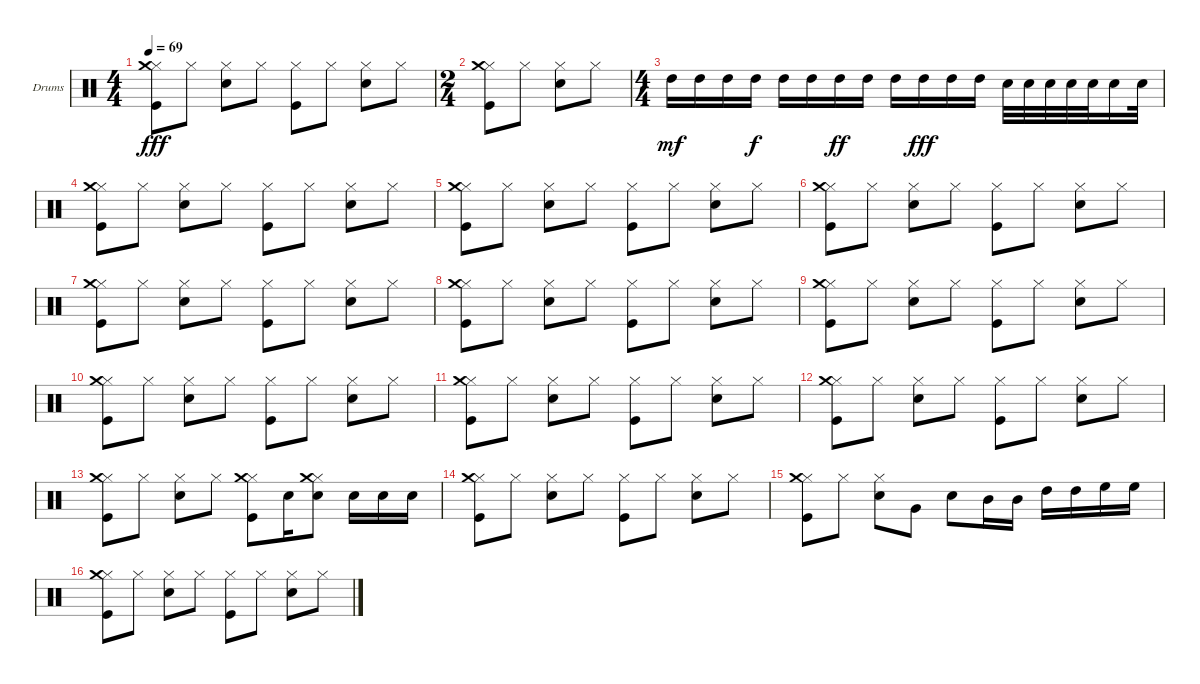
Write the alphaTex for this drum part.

\bracketExtendMode groupsimilarinstruments
\firstSystemTrackNameOrientation horizontal
\otherSystemsTrackNameOrientation horizontal
\track ("Барабаны" "Drums") {instrument percussion}
\staff {score}
\articulation defaults
\ts (4 4)
\tempo 69
\clef neutral
\ks c
("Hi-Hat (closed)" "Kick (hit)" "Crash medium (hit)").8{dy fff} "Hi-Hat (closed)".8 ("Hi-Hat (closed)" "Snare (hit) 2").8 "Hi-Hat (closed)".8 ("Hi-Hat (closed)" "Kick (hit)").8 "Hi-Hat (closed)".8 ("Hi-Hat (closed)" "Snare (hit) 2").8 "Hi-Hat (closed)".8 |
\ts (2 4)
("Hi-Hat (closed)" "Kick (hit)" "Crash medium (hit)").8 "Hi-Hat (closed)".8 ("Hi-Hat (closed)" "Snare (hit) 2").8 "Hi-Hat (closed)".8 |
\ts (4 4)
"High Tom (hit)".16{dy mf} "High Tom (hit)".16 "High Tom (hit)".16 "High Tom (hit)".16{dy f} "High Tom (hit)".16 "High Tom (hit)".16 "High Tom (hit)".16{dy ff} "High Tom (hit)".16 "High Tom (hit)".16 "High Tom (hit)".16{dy fff} "High Tom (hit)".16 "High Tom (hit)".16 "Snare (hit) 2".32 "Snare (hit) 2".32 "Snare (hit) 2".32 "Snare (hit) 2".32 "Snare (hit) 2".32 "Snare (hit) 2".16 "Snare (hit) 2".32 |
("Hi-Hat (closed)" "Kick (hit)" "Crash medium (hit)").8 "Hi-Hat (closed)".8 ("Hi-Hat (closed)" "Snare (hit) 2").8 "Hi-Hat (closed)".8 ("Hi-Hat (closed)" "Kick (hit)").8 "Hi-Hat (closed)".8 ("Hi-Hat (closed)" "Snare (hit) 2").8 "Hi-Hat (closed)".8 |
("Hi-Hat (closed)" "Kick (hit)" "Crash medium (hit)").8 "Hi-Hat (closed)".8 ("Hi-Hat (closed)" "Snare (hit) 2").8 "Hi-Hat (closed)".8 ("Hi-Hat (closed)" "Kick (hit)").8 "Hi-Hat (closed)".8 ("Hi-Hat (closed)" "Snare (hit) 2").8 "Hi-Hat (closed)".8 |
("Hi-Hat (closed)" "Kick (hit)" "Crash medium (hit)").8 "Hi-Hat (closed)".8 ("Hi-Hat (closed)" "Snare (hit) 2").8 "Hi-Hat (closed)".8 ("Hi-Hat (closed)" "Kick (hit)").8 "Hi-Hat (closed)".8 ("Hi-Hat (closed)" "Snare (hit) 2").8 "Hi-Hat (closed)".8 |
("Hi-Hat (closed)" "Kick (hit)" "Crash medium (hit)").8 "Hi-Hat (closed)".8 ("Hi-Hat (closed)" "Snare (hit) 2").8 "Hi-Hat (closed)".8 ("Hi-Hat (closed)" "Kick (hit)").8 "Hi-Hat (closed)".8 ("Hi-Hat (closed)" "Snare (hit) 2").8 "Hi-Hat (closed)".8 |
("Hi-Hat (closed)" "Kick (hit)" "Crash medium (hit)").8 "Hi-Hat (closed)".8 ("Hi-Hat (closed)" "Snare (hit) 2").8 "Hi-Hat (closed)".8 ("Hi-Hat (closed)" "Kick (hit)").8 "Hi-Hat (closed)".8 ("Hi-Hat (closed)" "Snare (hit) 2").8 "Hi-Hat (closed)".8 |
("Hi-Hat (closed)" "Kick (hit)" "Crash medium (hit)").8 "Hi-Hat (closed)".8 ("Hi-Hat (closed)" "Snare (hit) 2").8 "Hi-Hat (closed)".8 ("Hi-Hat (closed)" "Kick (hit)").8 "Hi-Hat (closed)".8 ("Hi-Hat (closed)" "Snare (hit) 2").8 "Hi-Hat (closed)".8 |
("Hi-Hat (closed)" "Kick (hit)" "Crash medium (hit)").8 "Hi-Hat (closed)".8 ("Hi-Hat (closed)" "Snare (hit) 2").8 "Hi-Hat (closed)".8 ("Hi-Hat (closed)" "Kick (hit)").8 "Hi-Hat (closed)".8 ("Hi-Hat (closed)" "Snare (hit) 2").8 "Hi-Hat (closed)".8 |
("Hi-Hat (closed)" "Kick (hit)" "Crash medium (hit)").8 "Hi-Hat (closed)".8 ("Hi-Hat (closed)" "Snare (hit) 2").8 "Hi-Hat (closed)".8 ("Hi-Hat (closed)" "Kick (hit)").8 "Hi-Hat (closed)".8 ("Hi-Hat (closed)" "Snare (hit) 2").8 "Hi-Hat (closed)".8 |
("Hi-Hat (closed)" "Kick (hit)" "Crash medium (hit)").8 "Hi-Hat (closed)".8 ("Hi-Hat (closed)" "Snare (hit) 2").8 "Hi-Hat (closed)".8 ("Hi-Hat (closed)" "Kick (hit)").8 "Hi-Hat (closed)".8 ("Hi-Hat (closed)" "Snare (hit) 2").8 "Hi-Hat (closed)".8 |
("Hi-Hat (closed)" "Kick (hit)" "Crash medium (hit)").8 "Hi-Hat (closed)".8 ("Hi-Hat (closed)" "Snare (hit) 2").8 "Hi-Hat (closed)".8 ("Hi-Hat (closed)" "Kick (hit)" "Crash medium (hit)").8 "Snare (hit) 2".16 ("Hi-Hat (closed)" "Snare (hit) 2" "Crash medium (hit)").8 "Snare (hit) 2".16 "Snare (hit) 2".16 "Snare (hit) 2".16 |
("Hi-Hat (closed)" "Kick (hit)" "Crash medium (hit)").8 "Hi-Hat (closed)".8 ("Hi-Hat (closed)" "Snare (hit) 2").8 "Hi-Hat (closed)".8 ("Hi-Hat (closed)" "Kick (hit)").8 "Hi-Hat (closed)".8 ("Hi-Hat (closed)" "Snare (hit) 2").8 "Hi-Hat (closed)".8 |
("Hi-Hat (closed)" "Kick (hit)" "Crash medium (hit)").8 "Hi-Hat (closed)".8 ("Hi-Hat (closed)" "Snare (hit) 2").8 "Very Low Tom (hit)".8 "Snare (hit) 2".8 "Mid Tom (hit)".16 "Mid Tom (hit)".16 "High Tom (hit)".16 "High Tom (hit)".16 "High Floor Tom (hit)".16 "High Floor Tom (hit)".16 |
("Hi-Hat (closed)" "Kick (hit)" "Crash medium (hit)").8 "Hi-Hat (closed)".8 ("Hi-Hat (closed)" "Snare (hit) 2").8 "Hi-Hat (closed)".8 ("Hi-Hat (closed)" "Kick (hit)").8 "Hi-Hat (closed)".8 ("Hi-Hat (closed)" "Snare (hit) 2").8 "Hi-Hat (closed)".8
